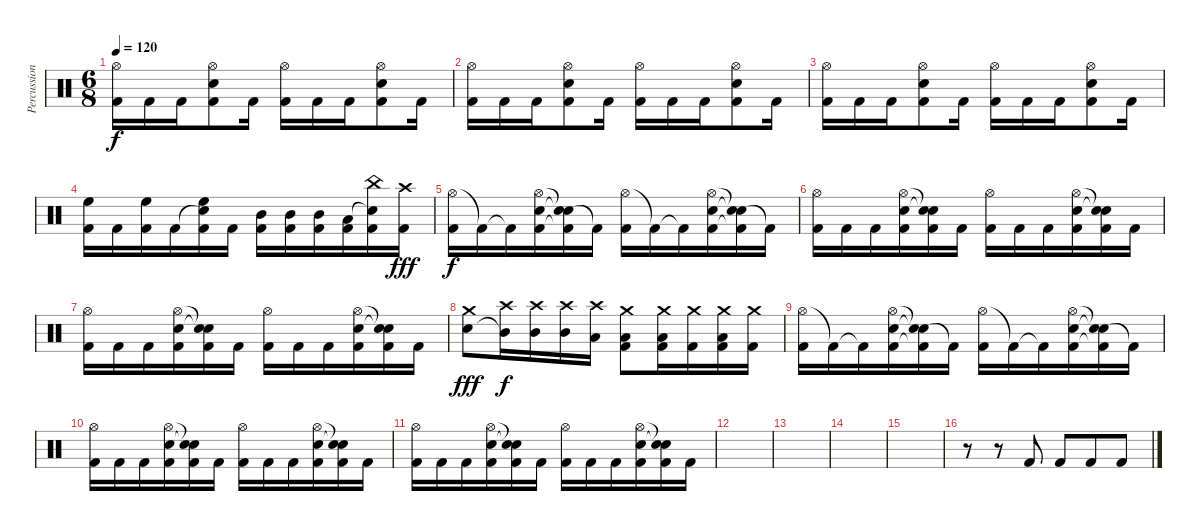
\track ("Percussion" "Percussion") {instrument percussion}
\staff {score}
\articulation defaults
\ts (6 8)
\tempo 120
\clef neutral
\ks c
("Hi-Hat (open)" "Kick (hit) 2").16{dy f} "Kick (hit) 2".16 "Kick (hit) 2".16 ("Hi-Hat (open)" "Snare (hit) 2" "Kick (hit) 2").8 "Kick (hit) 2".16 ("Hi-Hat (open)" "Kick (hit) 2").16 "Kick (hit) 2".16 "Kick (hit) 2".16 ("Hi-Hat (open)" "Snare (hit) 2" "Kick (hit) 2").8 "Kick (hit) 2".16 |
("Hi-Hat (open)" "Kick (hit) 2").16 "Kick (hit) 2".16 "Kick (hit) 2".16 ("Hi-Hat (open)" "Snare (hit) 2" "Kick (hit) 2").8 "Kick (hit) 2".16 ("Hi-Hat (open)" "Kick (hit) 2").16 "Kick (hit) 2".16 "Kick (hit) 2".16 ("Hi-Hat (open)" "Snare (hit) 2" "Kick (hit) 2").8 "Kick (hit) 2".16 |
("Hi-Hat (open)" "Kick (hit) 2").16 "Kick (hit) 2".16 "Kick (hit) 2".16 ("Hi-Hat (open)" "Snare (hit) 2" "Kick (hit) 2").8 "Kick (hit) 2".16 ("Hi-Hat (open)" "Kick (hit) 2").16 "Kick (hit) 2".16 "Kick (hit) 2".16 ("Hi-Hat (open)" "Snare (hit) 2" "Kick (hit) 2").8 "Kick (hit) 2".16 |
("High Floor Tom (hit)" "Kick (hit) 2").16 "Kick (hit) 2".16 ("High Floor Tom (hit)" "Kick (hit) 2").16 "Kick (hit) 2".16 ("Snare (hit)"{t} "High Floor Tom (hit)" "Kick (hit) 2").16 "Kick (hit) 2".16 ("Mid Tom (hit)" "Kick (hit) 2").16 ("Mid Tom (hit)" "Kick (hit) 2").16 ("Mid Tom (hit)" "Kick (hit) 2").16 ("Low Tom (hit)" "Kick (hit) 2").16 ("Snare (hit)"{t} "China (hit)" "Kick (hit) 2").16 ("Crash high (hit)" "Kick (hit) 2").16{dy fff} |
("Hi-Hat (open)" "Kick (hit) 2").16{dy f} "Kick (hit) 2"{t}.16 "Kick (hit) 2"{t}.16 ("Hi-Hat (open)" "Snare (hit) 2" "Kick (hit) 2").16 ("Snare (hit)"{t} "Snare (hit)"{t} "Kick (hit) 2"{t}).16 "Kick (hit) 2"{t}.16 ("Hi-Hat (open)" "Kick (hit) 2").16 "Kick (hit) 2"{t}.16 "Kick (hit) 2"{t}.16 ("Hi-Hat (open)" "Snare (hit) 2" "Kick (hit) 2").16 ("Snare (hit)"{t} "Snare (hit)"{t} "Kick (hit) 2"{t}).16 "Kick (hit) 2"{t}.16 |
("Hi-Hat (open)" "Kick (hit) 2").16 "Kick (hit) 2".16 "Kick (hit) 2".16 ("Hi-Hat (open)" "Snare (hit) 2" "Kick (hit) 2").16 ("Snare (hit)"{t} "Snare (hit)"{t} "Kick (hit) 2").16 "Kick (hit) 2".16 ("Hi-Hat (open)" "Kick (hit) 2").16 "Kick (hit) 2".16 "Kick (hit) 2".16 ("Hi-Hat (open)" "Snare (hit) 2" "Kick (hit) 2").16 ("Snare (hit)"{t} "Snare (hit)"{t} "Kick (hit) 2").16 "Kick (hit) 2".16 |
("Hi-Hat (open)" "Kick (hit) 2").16 "Kick (hit) 2".16 "Kick (hit) 2".16 ("Hi-Hat (open)" "Snare (hit) 2" "Kick (hit) 2").16 ("Snare (hit)"{t} "Snare (hit)"{t} "Kick (hit) 2").16 "Kick (hit) 2".16 ("Hi-Hat (open)" "Kick (hit) 2").16 "Kick (hit) 2".16 "Kick (hit) 2".16 ("Hi-Hat (open)" "Snare (hit) 2" "Kick (hit) 2").16 ("Snare (hit)"{t} "Snare (hit)"{t} "Kick (hit) 2").16 "Kick (hit) 2".16 |
("Crash medium (hit)" "Electric Snare (hit)").8{dy fff} ("Crash high (hit)" "Mid Tom (hit)"{t}).16{dy f} ("Crash high (hit)" "Mid Tom (hit)").16 ("Crash high (hit)" "Mid Tom (hit)").16 ("Crash high (hit)" "Low Tom (hit)").16 ("Kick (hit) 2" "Crash medium (hit)" "Low Tom (hit)").8 ("Kick (hit) 2" "Crash medium (hit)" "Low Floor Tom (hit)").16 ("Kick (hit) 2" "Crash medium (hit)").16 ("Kick (hit) 2" "Crash medium (hit)" "Low Floor Tom (hit)").16 ("Kick (hit) 2" "Crash medium (hit)").16 |
("Hi-Hat (open)" "Kick (hit) 2").16 "Kick (hit) 2"{t}.16 "Kick (hit) 2"{t}.16 ("Hi-Hat (open)" "Snare (hit) 2" "Kick (hit) 2").16 ("Snare (hit)"{t} "Snare (hit)"{t} "Kick (hit) 2"{t}).16 "Kick (hit) 2"{t}.16 ("Hi-Hat (open)" "Kick (hit) 2").16 "Kick (hit) 2"{t}.16 "Kick (hit) 2"{t}.16 ("Hi-Hat (open)" "Snare (hit) 2" "Kick (hit) 2").16 ("Snare (hit)"{t} "Snare (hit)"{t} "Kick (hit) 2"{t}).16 "Kick (hit) 2"{t}.16 |
("Hi-Hat (open)" "Kick (hit) 2").16 "Kick (hit) 2".16 "Kick (hit) 2".16 ("Hi-Hat (open)" "Snare (hit) 2" "Kick (hit) 2").16 ("Snare (hit)"{t} "Snare (hit)"{t} "Kick (hit) 2").16 "Kick (hit) 2".16 ("Hi-Hat (open)" "Kick (hit) 2").16 "Kick (hit) 2".16 "Kick (hit) 2".16 ("Hi-Hat (open)" "Snare (hit) 2" "Kick (hit) 2").16 ("Snare (hit)"{t} "Snare (hit)"{t} "Kick (hit) 2").16 "Kick (hit) 2".16 |
("Hi-Hat (open)" "Kick (hit) 2").16 "Kick (hit) 2".16 "Kick (hit) 2".16 ("Hi-Hat (open)" "Snare (hit) 2" "Kick (hit) 2").16 ("Snare (hit)"{t} "Snare (hit)"{t} "Kick (hit) 2").16 "Kick (hit) 2".16 ("Hi-Hat (open)" "Kick (hit) 2").16 "Kick (hit) 2".16 "Kick (hit) 2".16 ("Hi-Hat (open)" "Snare (hit) 2" "Kick (hit) 2").16 ("Snare (hit)"{t} "Snare (hit)"{t} "Kick (hit) 2").16 "Kick (hit) 2".16 |
|
|
|
|
r.8 r.8 "Kick (hit) 2".8 "Kick (hit) 2".8 "Kick (hit) 2".8 "Kick (hit) 2".8
